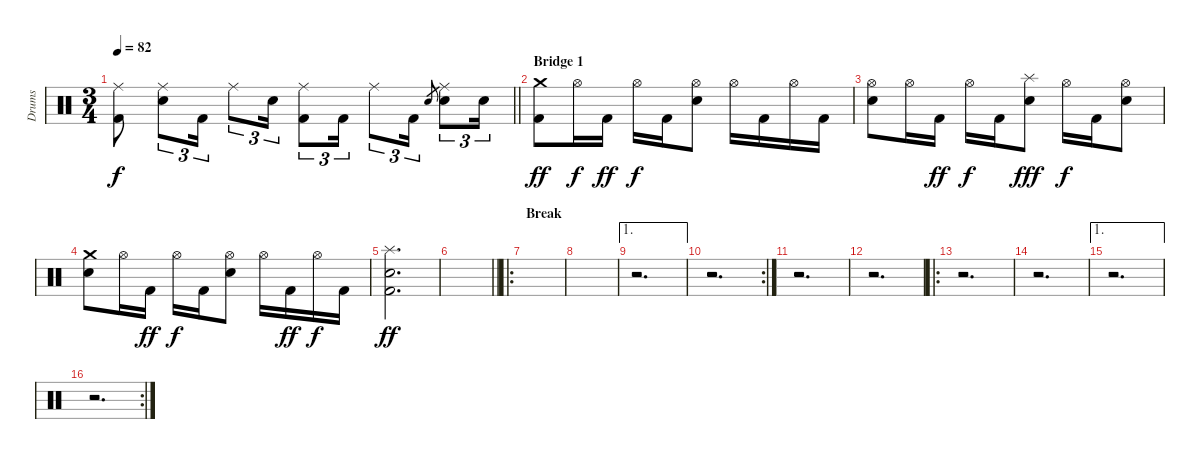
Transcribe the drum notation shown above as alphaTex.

\track ("Drums" "Drums") {instrument percussion}
\staff {score}
\articulation defaults
\ts (3 4)
\tempo 82
\clef neutral
\barLineRight lightlight
\ks c
("Ride (middle)" "Kick (hit) 2").8{dy f} ("Ride (middle)" "Electric Snare (hit)").8{tu (3 2)} "Kick (hit) 2".16{tu (3 2)} "Ride (middle)".8{tu (3 2)} "Electric Snare (hit)".16{tu (3 2)} ("Ride (middle)" "Kick (hit) 2").8{tu (3 2)} "Kick (hit) 2".16{tu (3 2)} "Ride (middle)".8{tu (3 2)} "Kick (hit) 2".16{tu (3 2)} "Electric Snare (hit)".8{gr} ("Ride (middle)" "Electric Snare (hit)").8{tu (3 2)} "Electric Snare (hit)".16{tu (3 2)} |
\section ("" "Bridge 1")
("Crash medium (hit)" "Kick (hit) 2").8{dy ff} "Hi-Hat (open)".16{dy f} "Kick (hit) 2".16{dy ff} "Hi-Hat (open)".16{dy f} "Kick (hit) 2".16 ("Hi-Hat (open)" "Electric Snare (hit)").8 "Hi-Hat (open)".16 "Kick (hit) 2".16 "Hi-Hat (open)".16 "Kick (hit) 2".16 |
("Hi-Hat (open)" "Electric Snare (hit)").8 "Hi-Hat (open)".16 "Kick (hit) 2".16{dy ff} "Hi-Hat (open)".16{dy f} "Kick (hit) 2".16 ("Splash (hit)" "Electric Snare (hit)").8{dy fff} "Hi-Hat (open)".16{dy f} "Kick (hit) 2".16 ("Hi-Hat (open)" "Electric Snare (hit)").8 |
("Crash medium (hit)" "Electric Snare (hit)").8 "Hi-Hat (open)".16 "Kick (hit) 2".16{dy ff} "Hi-Hat (open)".16{dy f} "Kick (hit) 2".16 ("Hi-Hat (open)" "Electric Snare (hit)").8 "Hi-Hat (open)".16 "Kick (hit) 2".16{dy ff} "Hi-Hat (open)".16{dy f} "Kick (hit) 2".16 |
("Splash (hit)" "Electric Snare (hit)" "Kick (hit) 2").2{d dy ff} |
\barLineRight lightlight
|
\ro
\section ("" "Break")
|
|
\ae 1
r.2{d} |
\rc 2
r.2{d} |
r.2{d} |
r.2{d} |
\ro
r.2{d} |
r.2{d} |
\ae 1
r.2{d} |
\rc 2
r.2{d}
